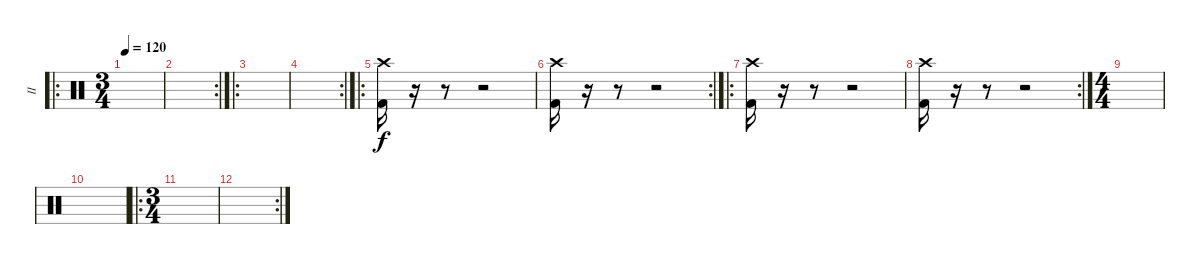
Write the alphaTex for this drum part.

\track ("II" "II") {instrument percussion}
\staff {score}
\articulation defaults
\ro
\ts (3 4)
\tempo 120
\clef neutral
\ks c
|
\rc 2
|
\ro
|
\rc 2
|
\ro
("Kick (hit) 2" "Crash high (hit)").16 r.16 r.8 r.2 |
\rc 2
("Kick (hit) 2" "Crash high (hit)").16 r.16 r.8 r.2 |
\ro
("Kick (hit) 2" "Crash high (hit)").16 r.16 r.8 r.2 |
\rc 2
("Kick (hit) 2" "Crash high (hit)").16 r.16 r.8 r.2 |
\ts (4 4)
|
|
\ro
\ts (3 4)
|
\rc 2
